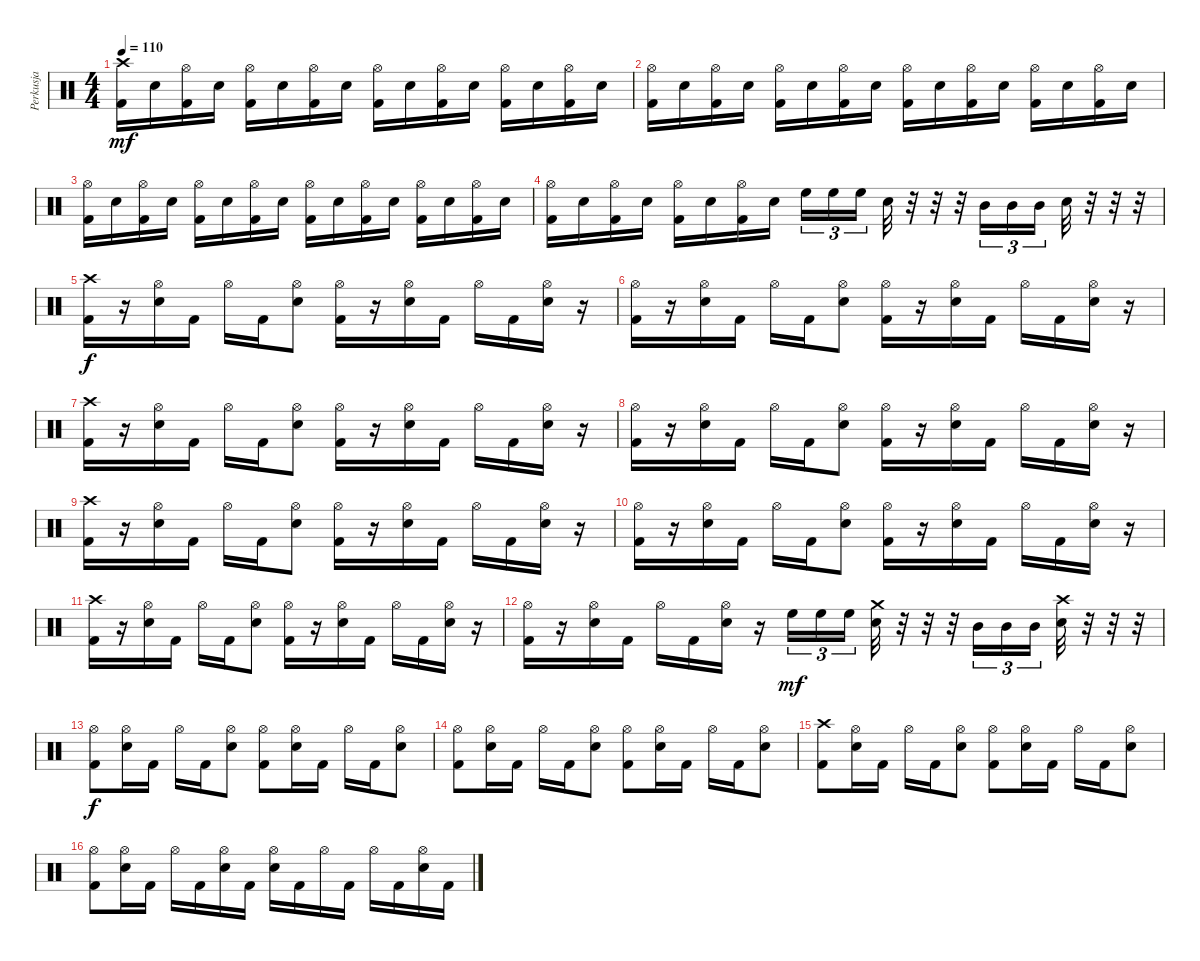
\track ("Perkusja" "Perkusja") {instrument percussion}
\staff {score}
\articulation defaults
\ts (4 4)
\tempo 110
\clef neutral
\ks c
("Crash high (hit)" "Kick (hit) 2").16{dy mf} "Snare (hit) 2".16 ("Hi-Hat (open)" "Kick (hit) 2").16 "Snare (hit) 2".16 ("Hi-Hat (open)" "Kick (hit) 2").16 "Snare (hit) 2".16 ("Hi-Hat (open)" "Kick (hit) 2").16 "Snare (hit) 2".16 ("Hi-Hat (open)" "Kick (hit) 2").16 "Snare (hit) 2".16 ("Hi-Hat (open)" "Kick (hit) 2").16 "Snare (hit) 2".16 ("Hi-Hat (open)" "Kick (hit) 2").16 "Snare (hit) 2".16 ("Hi-Hat (open)" "Kick (hit) 2").16 "Snare (hit) 2".16 |
("Hi-Hat (open)" "Kick (hit) 2").16 "Snare (hit) 2".16 ("Hi-Hat (open)" "Kick (hit) 2").16 "Snare (hit) 2".16 ("Hi-Hat (open)" "Kick (hit) 2").16 "Snare (hit) 2".16 ("Hi-Hat (open)" "Kick (hit) 2").16 "Snare (hit) 2".16 ("Hi-Hat (open)" "Kick (hit) 2").16 "Snare (hit) 2".16 ("Hi-Hat (open)" "Kick (hit) 2").16 "Snare (hit) 2".16 ("Hi-Hat (open)" "Kick (hit) 2").16 "Snare (hit) 2".16 ("Hi-Hat (open)" "Kick (hit) 2").16 "Snare (hit) 2".16 |
("Hi-Hat (open)" "Kick (hit) 2").16 "Snare (hit) 2".16 ("Hi-Hat (open)" "Kick (hit) 2").16 "Snare (hit) 2".16 ("Hi-Hat (open)" "Kick (hit) 2").16 "Snare (hit) 2".16 ("Hi-Hat (open)" "Kick (hit) 2").16 "Snare (hit) 2".16 ("Hi-Hat (open)" "Kick (hit) 2").16 "Snare (hit) 2".16 ("Hi-Hat (open)" "Kick (hit) 2").16 "Snare (hit) 2".16 ("Hi-Hat (open)" "Kick (hit) 2").16 "Snare (hit) 2".16 ("Hi-Hat (open)" "Kick (hit) 2").16 "Snare (hit) 2".16 |
("Hi-Hat (open)" "Kick (hit) 2").16 "Snare (hit) 2".16 ("Hi-Hat (open)" "Kick (hit) 2").16 "Snare (hit) 2".16 ("Hi-Hat (open)" "Kick (hit) 2").16 "Snare (hit) 2".16 ("Hi-Hat (open)" "Kick (hit) 2").16 "Snare (hit) 2".16 "High Floor Tom (hit)".16{tu (3 2)} "High Floor Tom (hit)".16{tu (3 2)} "High Floor Tom (hit)".16{tu (3 2) beam splitsecondary} "Snare (hit) 2".32 r.32 r.32 r.32 "Mid Tom (hit)".16{tu (3 2)} "Mid Tom (hit)".16{tu (3 2)} "Mid Tom (hit)".16{tu (3 2) beam splitsecondary} "Snare (hit) 2".32 r.32 r.32 r.32 |
("Crash high (hit)" "Kick (hit) 2").16{dy f} r.16 ("Hi-Hat (open)" "Snare (hit) 2").16 "Kick (hit) 2".16 "Hi-Hat (open)".16 "Kick (hit) 2".16 ("Hi-Hat (open)" "Snare (hit) 2").8 ("Hi-Hat (open)" "Kick (hit) 2").16 r.16 ("Hi-Hat (open)" "Snare (hit) 2").16 "Kick (hit) 2".16 "Hi-Hat (open)".16 "Kick (hit) 2".16 ("Hi-Hat (open)" "Snare (hit) 2").16 r.16 |
("Hi-Hat (open)" "Kick (hit) 2").16 r.16 ("Hi-Hat (open)" "Snare (hit) 2").16 "Kick (hit) 2".16 "Hi-Hat (open)".16 "Kick (hit) 2".16 ("Hi-Hat (open)" "Snare (hit) 2").8 ("Hi-Hat (open)" "Kick (hit) 2").16 r.16 ("Hi-Hat (open)" "Snare (hit) 2").16 "Kick (hit) 2".16 "Hi-Hat (open)".16 "Kick (hit) 2".16 ("Hi-Hat (open)" "Snare (hit) 2").16 r.16 |
("Crash high (hit)" "Kick (hit) 2").16 r.16 ("Hi-Hat (open)" "Snare (hit) 2").16 "Kick (hit) 2".16 "Hi-Hat (open)".16 "Kick (hit) 2".16 ("Hi-Hat (open)" "Snare (hit) 2").8 ("Hi-Hat (open)" "Kick (hit) 2").16 r.16 ("Hi-Hat (open)" "Snare (hit) 2").16 "Kick (hit) 2".16 "Hi-Hat (open)".16 "Kick (hit) 2".16 ("Hi-Hat (open)" "Snare (hit) 2").16 r.16 |
("Hi-Hat (open)" "Kick (hit) 2").16 r.16 ("Hi-Hat (open)" "Snare (hit) 2").16 "Kick (hit) 2".16 "Hi-Hat (open)".16 "Kick (hit) 2".16 ("Hi-Hat (open)" "Snare (hit) 2").8 ("Hi-Hat (open)" "Kick (hit) 2").16 r.16 ("Hi-Hat (open)" "Snare (hit) 2").16 "Kick (hit) 2".16 "Hi-Hat (open)".16 "Kick (hit) 2".16 ("Hi-Hat (open)" "Snare (hit) 2").16 r.16 |
("Crash high (hit)" "Kick (hit) 2").16 r.16 ("Hi-Hat (open)" "Snare (hit) 2").16 "Kick (hit) 2".16 "Hi-Hat (open)".16 "Kick (hit) 2".16 ("Hi-Hat (open)" "Snare (hit) 2").8 ("Hi-Hat (open)" "Kick (hit) 2").16 r.16 ("Hi-Hat (open)" "Snare (hit) 2").16 "Kick (hit) 2".16 "Hi-Hat (open)".16 "Kick (hit) 2".16 ("Hi-Hat (open)" "Snare (hit) 2").16 r.16 |
("Hi-Hat (open)" "Kick (hit) 2").16 r.16 ("Hi-Hat (open)" "Snare (hit) 2").16 "Kick (hit) 2".16 "Hi-Hat (open)".16 "Kick (hit) 2".16 ("Hi-Hat (open)" "Snare (hit) 2").8 ("Hi-Hat (open)" "Kick (hit) 2").16 r.16 ("Hi-Hat (open)" "Snare (hit) 2").16 "Kick (hit) 2".16 "Hi-Hat (open)".16 "Kick (hit) 2".16 ("Hi-Hat (open)" "Snare (hit) 2").16 r.16 |
("Crash high (hit)" "Kick (hit) 2").16 r.16 ("Hi-Hat (open)" "Snare (hit) 2").16 "Kick (hit) 2".16 "Hi-Hat (open)".16 "Kick (hit) 2".16 ("Hi-Hat (open)" "Snare (hit) 2").8 ("Hi-Hat (open)" "Kick (hit) 2").16 r.16 ("Hi-Hat (open)" "Snare (hit) 2").16 "Kick (hit) 2".16 "Hi-Hat (open)".16 "Kick (hit) 2".16 ("Hi-Hat (open)" "Snare (hit) 2").16 r.16 |
("Hi-Hat (open)" "Kick (hit) 2").16 r.16 ("Hi-Hat (open)" "Snare (hit) 2").16 "Kick (hit) 2".16 "Hi-Hat (open)".16 "Kick (hit) 2".16 ("Hi-Hat (open)" "Snare (hit) 2").16 r.16 "High Floor Tom (hit)".16{tu (3 2) dy mf} "High Floor Tom (hit)".16{tu (3 2)} "High Floor Tom (hit)".16{tu (3 2) beam splitsecondary} ("Crash medium (hit)" "Snare (hit) 2").32 r.32 r.32 r.32 "Mid Tom (hit)".16{tu (3 2)} "Mid Tom (hit)".16{tu (3 2)} "Mid Tom (hit)".16{tu (3 2) beam splitsecondary} ("Crash high (hit)" "Snare (hit) 2").32 r.32 r.32 r.32 |
("Hi-Hat (open)" "Kick (hit) 2").8{dy f} ("Hi-Hat (open)" "Snare (hit) 2").16 "Kick (hit) 2".16 "Hi-Hat (open)".16 "Kick (hit) 2".16 ("Hi-Hat (open)" "Snare (hit) 2").8 ("Hi-Hat (open)" "Kick (hit) 2").8 ("Hi-Hat (open)" "Snare (hit) 2").16 "Kick (hit) 2".16 "Hi-Hat (open)".16 "Kick (hit) 2".16 ("Hi-Hat (open)" "Snare (hit) 2").8 |
("Hi-Hat (open)" "Kick (hit) 2").8 ("Hi-Hat (open)" "Snare (hit) 2").16 "Kick (hit) 2".16 "Hi-Hat (open)".16 "Kick (hit) 2".16 ("Hi-Hat (open)" "Snare (hit) 2").8 ("Hi-Hat (open)" "Kick (hit) 2").8 ("Hi-Hat (open)" "Snare (hit) 2").16 "Kick (hit) 2".16 "Hi-Hat (open)".16 "Kick (hit) 2".16 ("Hi-Hat (open)" "Snare (hit) 2").8 |
("Crash high (hit)" "Kick (hit) 2").8 ("Hi-Hat (open)" "Snare (hit) 2").16 "Kick (hit) 2".16 "Hi-Hat (open)".16 "Kick (hit) 2".16 ("Hi-Hat (open)" "Snare (hit) 2").8 ("Hi-Hat (open)" "Kick (hit) 2").8 ("Hi-Hat (open)" "Snare (hit) 2").16 "Kick (hit) 2".16 "Hi-Hat (open)".16 "Kick (hit) 2".16 ("Hi-Hat (open)" "Snare (hit) 2").8 |
("Hi-Hat (open)" "Kick (hit) 2").8 ("Hi-Hat (open)" "Snare (hit) 2").16 "Kick (hit) 2".16 "Hi-Hat (open)".16 "Kick (hit) 2".16 ("Hi-Hat (open)" "Snare (hit) 2").16 "Kick (hit) 2".16 ("Hi-Hat (open)" "Snare (hit) 2").16 "Kick (hit) 2".16 "Hi-Hat (open)".16 "Kick (hit) 2".16 "Hi-Hat (open)".16 "Kick (hit) 2".16 ("Hi-Hat (open)" "Snare (hit) 2").16 "Kick (hit) 2".16
